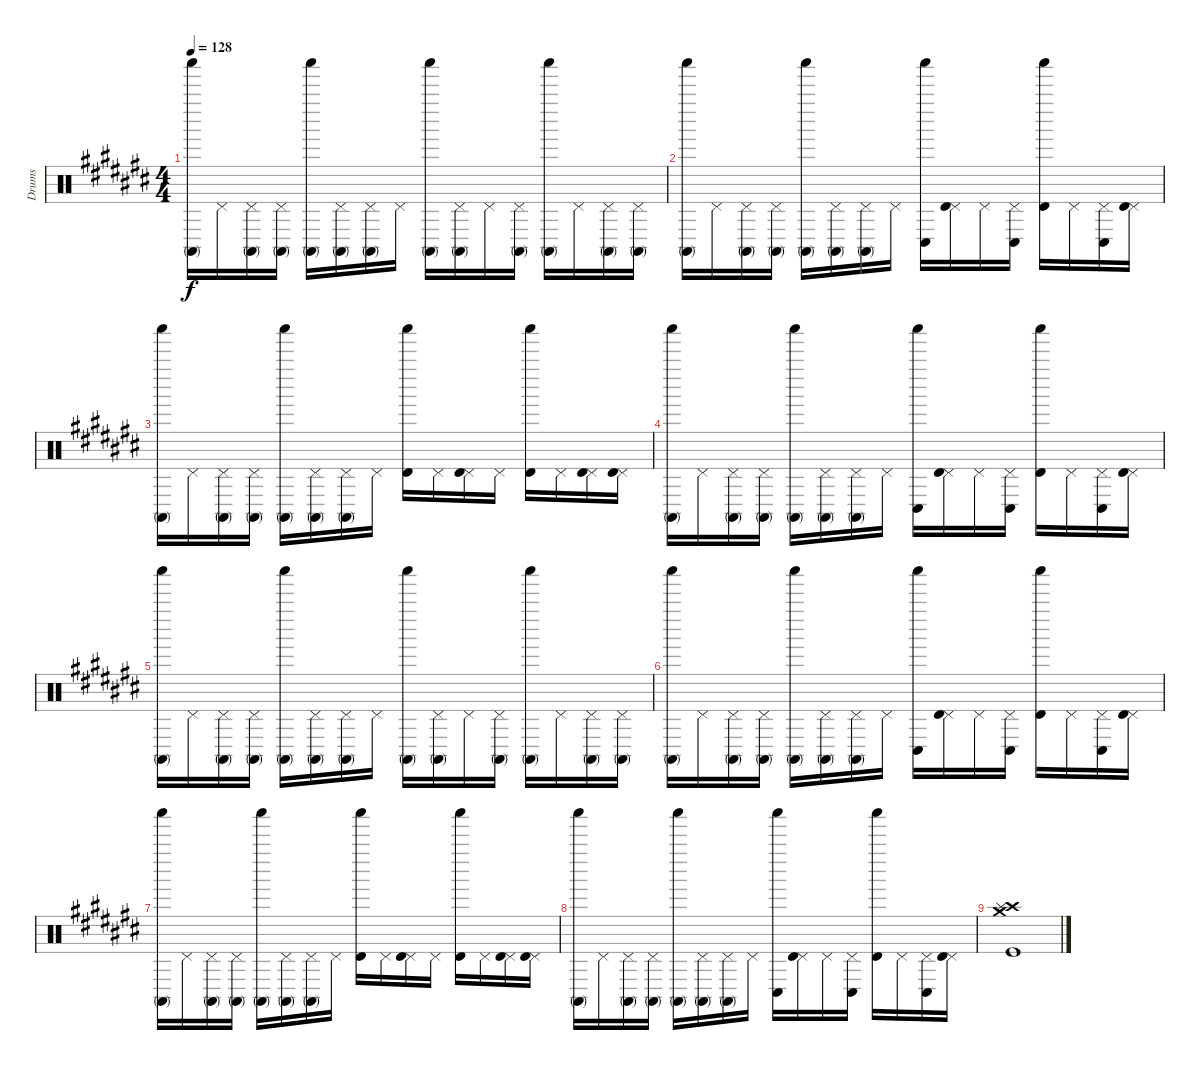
\track ("Drums" "Drums") {instrument percussion}
\staff {score}
\articulation defaults
\ts (4 4)
\tempo 128
\clef neutral
\ks c#
("Shaker (hit)" "Conga high (mute)").16{dy f} "Pedal Hi-Hat (hit)".16 ("Pedal Hi-Hat (hit)" "Conga high (mute)").16 ("Pedal Hi-Hat (hit)" "Conga high (mute)").16 ("Shaker (hit)" "Conga high (mute)").16 ("Pedal Hi-Hat (hit)" "Conga high (mute)").16 ("Pedal Hi-Hat (hit)" "Conga high (mute)").16 "Pedal Hi-Hat (hit)".16 ("Shaker (hit)" "Conga high (mute)").16 ("Pedal Hi-Hat (hit)" "Conga high (mute)").16 "Pedal Hi-Hat (hit)".16 ("Pedal Hi-Hat (hit)" "Conga high (mute)").16 ("Shaker (hit)" "Conga high (mute)").16 "Pedal Hi-Hat (hit)".16 ("Pedal Hi-Hat (hit)" "Conga high (mute)").16 ("Pedal Hi-Hat (hit)" "Conga high (mute)").16 |
("Shaker (hit)" "Conga high (mute)").16 "Pedal Hi-Hat (hit)".16 ("Pedal Hi-Hat (hit)" "Conga high (mute)").16 ("Pedal Hi-Hat (hit)" "Conga high (mute)").16 ("Shaker (hit)" "Conga high (mute)").16 ("Pedal Hi-Hat (hit)" "Conga high (mute)").16 ("Pedal Hi-Hat (hit)" "Conga high (mute)").16 "Pedal Hi-Hat (hit)".16 ("Shaker (hit)" "Conga low (hit)").16 ("Pedal Hi-Hat (hit)" "Timbale high (hit)").16 "Pedal Hi-Hat (hit)".16 ("Pedal Hi-Hat (hit)" "Conga low (hit)").16 ("Shaker (hit)" "Timbale high (hit)").16 "Pedal Hi-Hat (hit)".16 ("Pedal Hi-Hat (hit)" "Conga low (hit)").16 ("Pedal Hi-Hat (hit)" "Timbale high (hit)").16 |
("Shaker (hit)" "Conga high (mute)").16 "Pedal Hi-Hat (hit)".16 ("Pedal Hi-Hat (hit)" "Conga high (mute)").16 ("Pedal Hi-Hat (hit)" "Conga high (mute)").16 ("Shaker (hit)" "Conga high (mute)").16 ("Pedal Hi-Hat (hit)" "Conga high (mute)").16 ("Pedal Hi-Hat (hit)" "Conga high (mute)").16 "Pedal Hi-Hat (hit)".16 ("Shaker (hit)" "Timbale high (hit)").16 "Pedal Hi-Hat (hit)".16 ("Pedal Hi-Hat (hit)" "Timbale high (hit)").16 "Pedal Hi-Hat (hit)".16 ("Shaker (hit)" "Timbale high (hit)").16 "Pedal Hi-Hat (hit)".16 ("Pedal Hi-Hat (hit)" "Timbale high (hit)").16 ("Pedal Hi-Hat (hit)" "Timbale high (hit)").16 |
("Shaker (hit)" "Conga high (mute)").16 "Pedal Hi-Hat (hit)".16 ("Pedal Hi-Hat (hit)" "Conga high (mute)").16 ("Pedal Hi-Hat (hit)" "Conga high (mute)").16 ("Shaker (hit)" "Conga high (mute)").16 ("Pedal Hi-Hat (hit)" "Conga high (mute)").16 ("Pedal Hi-Hat (hit)" "Conga high (mute)").16 "Pedal Hi-Hat (hit)".16 ("Shaker (hit)" "Conga low (hit)").16 ("Pedal Hi-Hat (hit)" "Timbale high (hit)").16 "Pedal Hi-Hat (hit)".16 ("Pedal Hi-Hat (hit)" "Conga low (hit)").16 ("Shaker (hit)" "Timbale high (hit)").16 "Pedal Hi-Hat (hit)".16 ("Pedal Hi-Hat (hit)" "Conga low (hit)").16 ("Pedal Hi-Hat (hit)" "Timbale high (hit)").16 |
("Shaker (hit)" "Conga high (mute)").16 "Pedal Hi-Hat (hit)".16 ("Pedal Hi-Hat (hit)" "Conga high (mute)").16 ("Pedal Hi-Hat (hit)" "Conga high (mute)").16 ("Shaker (hit)" "Conga high (mute)").16 ("Pedal Hi-Hat (hit)" "Conga high (mute)").16 ("Pedal Hi-Hat (hit)" "Conga high (mute)").16 "Pedal Hi-Hat (hit)".16 ("Shaker (hit)" "Conga high (mute)").16 ("Pedal Hi-Hat (hit)" "Conga high (mute)").16 "Pedal Hi-Hat (hit)".16 ("Pedal Hi-Hat (hit)" "Conga high (mute)").16 ("Shaker (hit)" "Conga high (mute)").16 "Pedal Hi-Hat (hit)".16 ("Pedal Hi-Hat (hit)" "Conga high (mute)").16 ("Pedal Hi-Hat (hit)" "Conga high (mute)").16 |
("Shaker (hit)" "Conga high (mute)").16 "Pedal Hi-Hat (hit)".16 ("Pedal Hi-Hat (hit)" "Conga high (mute)").16 ("Pedal Hi-Hat (hit)" "Conga high (mute)").16 ("Shaker (hit)" "Conga high (mute)").16 ("Pedal Hi-Hat (hit)" "Conga high (mute)").16 ("Pedal Hi-Hat (hit)" "Conga high (mute)").16 "Pedal Hi-Hat (hit)".16 ("Shaker (hit)" "Conga low (hit)").16 ("Pedal Hi-Hat (hit)" "Timbale high (hit)").16 "Pedal Hi-Hat (hit)".16 ("Pedal Hi-Hat (hit)" "Conga low (hit)").16 ("Shaker (hit)" "Timbale high (hit)").16 "Pedal Hi-Hat (hit)".16 ("Pedal Hi-Hat (hit)" "Conga low (hit)").16 ("Pedal Hi-Hat (hit)" "Timbale high (hit)").16 |
("Shaker (hit)" "Conga high (mute)").16 "Pedal Hi-Hat (hit)".16 ("Pedal Hi-Hat (hit)" "Conga high (mute)").16 ("Pedal Hi-Hat (hit)" "Conga high (mute)").16 ("Shaker (hit)" "Conga high (mute)").16 ("Pedal Hi-Hat (hit)" "Conga high (mute)").16 ("Pedal Hi-Hat (hit)" "Conga high (mute)").16 "Pedal Hi-Hat (hit)".16 ("Shaker (hit)" "Timbale high (hit)").16 "Pedal Hi-Hat (hit)".16 ("Pedal Hi-Hat (hit)" "Timbale high (hit)").16 "Pedal Hi-Hat (hit)".16 ("Shaker (hit)" "Timbale high (hit)").16 "Pedal Hi-Hat (hit)".16 ("Pedal Hi-Hat (hit)" "Timbale high (hit)").16 ("Pedal Hi-Hat (hit)" "Timbale high (hit)").16 |
("Shaker (hit)" "Conga high (mute)").16 "Pedal Hi-Hat (hit)".16 ("Pedal Hi-Hat (hit)" "Conga high (mute)").16 ("Pedal Hi-Hat (hit)" "Conga high (mute)").16 ("Shaker (hit)" "Conga high (mute)").16 ("Pedal Hi-Hat (hit)" "Conga high (mute)").16 ("Pedal Hi-Hat (hit)" "Conga high (mute)").16 "Pedal Hi-Hat (hit)".16 ("Shaker (hit)" "Conga low (hit)").16 ("Pedal Hi-Hat (hit)" "Timbale high (hit)").16 "Pedal Hi-Hat (hit)".16 ("Pedal Hi-Hat (hit)" "Conga low (hit)").16 ("Shaker (hit)" "Timbale high (hit)").16 "Pedal Hi-Hat (hit)".16 ("Pedal Hi-Hat (hit)" "Conga low (hit)").16 ("Pedal Hi-Hat (hit)" "Timbale high (hit)").16 |
("Crash high (hit)" "Crash medium (hit)" "Splash (hit)" "Kick (hit)").1
